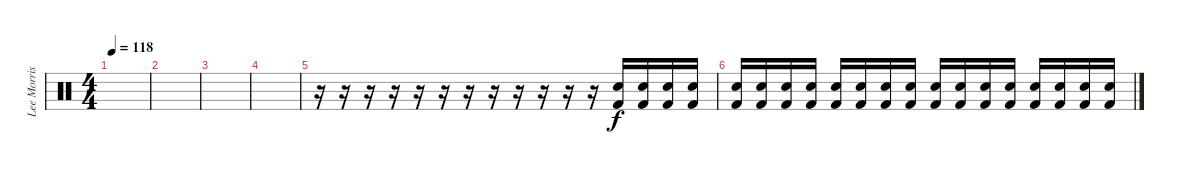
\track ("Lee Morris" "Lee Morris") {instrument percussion}
\staff {score}
\articulation defaults
\ts (4 4)
\tempo 118
\clef neutral
\ks c
|
|
|
|
r.16 r.16 r.16 r.16 r.16 r.16 r.16 r.16 r.16 r.16 r.16 r.16 ("Electric Snare (hit)" "Kick (hit) 2").16{volume 2} ("Electric Snare (hit)" "Kick (hit) 2").16 ("Electric Snare (hit)" "Kick (hit) 2").16 ("Electric Snare (hit)" "Kick (hit) 2").16 |
("Electric Snare (hit)" "Kick (hit) 2").16{volume 13} ("Electric Snare (hit)" "Kick (hit) 2").16 ("Electric Snare (hit)" "Kick (hit) 2").16 ("Electric Snare (hit)" "Kick (hit) 2").16 ("Electric Snare (hit)" "Kick (hit) 2").16 ("Electric Snare (hit)" "Kick (hit) 2").16 ("Electric Snare (hit)" "Kick (hit) 2").16 ("Electric Snare (hit)" "Kick (hit) 2").16 ("Electric Snare (hit)" "Kick (hit) 2").16 ("Electric Snare (hit)" "Kick (hit) 2").16 ("Electric Snare (hit)" "Kick (hit) 2").16 ("Electric Snare (hit)" "Kick (hit) 2").16 ("Electric Snare (hit)" "Kick (hit) 2").16 ("Electric Snare (hit)" "Kick (hit) 2").16 ("Electric Snare (hit)" "Kick (hit) 2").16 ("Electric Snare (hit)" "Kick (hit) 2").16
